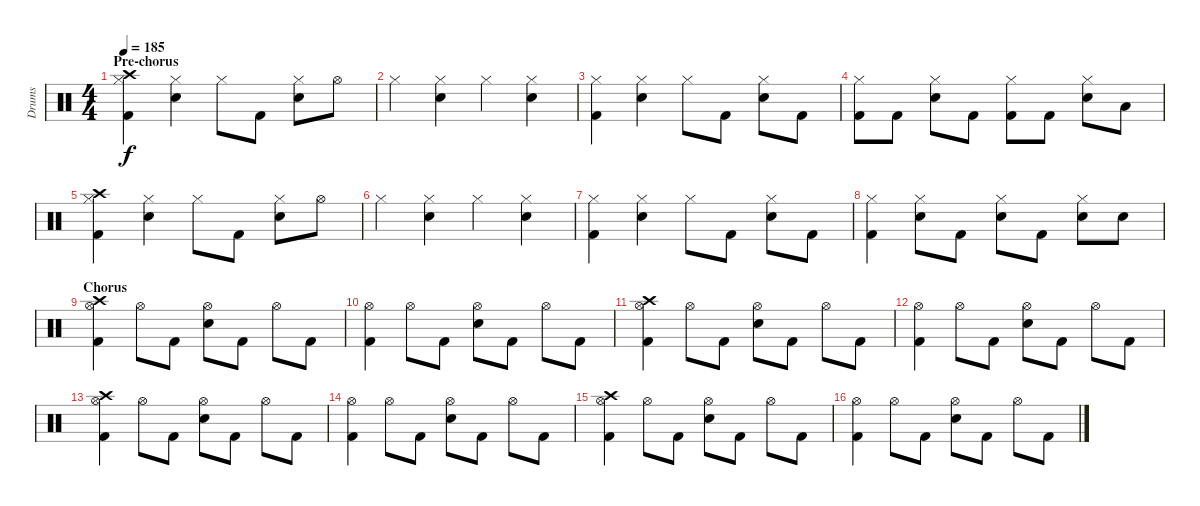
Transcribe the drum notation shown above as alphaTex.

\track ("Drums" "Drums") {instrument percussion}
\staff {score}
\articulation defaults
\ts (4 4)
\section ("" "Pre-chorus")
\tempo 185
\clef neutral
\ks c
("Hi-Hat (closed)" "Kick (hit) 2" "Crash high (hit)").4{dy f} ("Hi-Hat (closed)" "Electric Snare (hit)").4 "Hi-Hat (closed)".8 "Kick (hit) 2".8 ("Hi-Hat (closed)" "Electric Snare (hit)").8 "Hi-Hat (open)".8 |
"Hi-Hat (closed)".4 ("Hi-Hat (closed)" "Electric Snare (hit)").4 "Hi-Hat (closed)".4 ("Hi-Hat (closed)" "Electric Snare (hit)").4 |
("Hi-Hat (closed)" "Kick (hit) 2").4 ("Hi-Hat (closed)" "Electric Snare (hit)").4 "Hi-Hat (closed)".8 "Kick (hit) 2".8 ("Hi-Hat (closed)" "Electric Snare (hit)").8 "Kick (hit) 2".8 |
("Hi-Hat (closed)" "Kick (hit) 2").8 "Kick (hit) 2".8 ("Hi-Hat (closed)" "Electric Snare (hit)").8 "Kick (hit) 2".8 ("Hi-Hat (closed)" "Kick (hit) 2").8 "Kick (hit) 2".8 ("Hi-Hat (closed)" "Electric Snare (hit)").8 "Low Tom (hit)".8 |
("Hi-Hat (closed)" "Kick (hit) 2" "Crash high (hit)").4 ("Hi-Hat (closed)" "Electric Snare (hit)").4 "Hi-Hat (closed)".8 "Kick (hit) 2".8 ("Hi-Hat (closed)" "Electric Snare (hit)").8 "Hi-Hat (open)".8 |
"Hi-Hat (closed)".4 ("Hi-Hat (closed)" "Electric Snare (hit)").4 "Hi-Hat (closed)".4 ("Hi-Hat (closed)" "Electric Snare (hit)").4 |
("Hi-Hat (closed)" "Kick (hit) 2").4 ("Hi-Hat (closed)" "Electric Snare (hit)").4 "Hi-Hat (closed)".8 "Kick (hit) 2".8 ("Hi-Hat (closed)" "Electric Snare (hit)").8 "Kick (hit) 2".8 |
("Hi-Hat (closed)" "Kick (hit) 2").4 ("Hi-Hat (closed)" "Electric Snare (hit)").8 "Kick (hit) 2".8 ("Hi-Hat (closed)" "Electric Snare (hit)").8 "Kick (hit) 2".8 ("Hi-Hat (closed)" "Electric Snare (hit)").8 "Electric Snare (hit)".8 |
\section ("" "Chorus")
("Hi-Hat (open)" "Kick (hit) 2" "Crash high (hit)").4 "Hi-Hat (open)".8 "Kick (hit) 2".8 ("Hi-Hat (open)" "Electric Snare (hit)").8 "Kick (hit) 2".8 "Hi-Hat (open)".8 "Kick (hit) 2".8 |
("Hi-Hat (open)" "Kick (hit) 2").4 "Hi-Hat (open)".8 "Kick (hit) 2".8 ("Hi-Hat (open)" "Electric Snare (hit)").8 "Kick (hit) 2".8 "Hi-Hat (open)".8 "Kick (hit) 2".8 |
("Hi-Hat (open)" "Kick (hit) 2" "Crash high (hit)").4 "Hi-Hat (open)".8 "Kick (hit) 2".8 ("Hi-Hat (open)" "Electric Snare (hit)").8 "Kick (hit) 2".8 "Hi-Hat (open)".8 "Kick (hit) 2".8 |
("Hi-Hat (open)" "Kick (hit) 2").4 "Hi-Hat (open)".8 "Kick (hit) 2".8 ("Hi-Hat (open)" "Electric Snare (hit)").8 "Kick (hit) 2".8 "Hi-Hat (open)".8 "Kick (hit) 2".8 |
("Hi-Hat (open)" "Kick (hit) 2" "Crash high (hit)").4 "Hi-Hat (open)".8 "Kick (hit) 2".8 ("Hi-Hat (open)" "Electric Snare (hit)").8 "Kick (hit) 2".8 "Hi-Hat (open)".8 "Kick (hit) 2".8 |
("Hi-Hat (open)" "Kick (hit) 2").4 "Hi-Hat (open)".8 "Kick (hit) 2".8 ("Hi-Hat (open)" "Electric Snare (hit)").8 "Kick (hit) 2".8 "Hi-Hat (open)".8 "Kick (hit) 2".8 |
("Hi-Hat (open)" "Kick (hit) 2" "Crash high (hit)").4 "Hi-Hat (open)".8 "Kick (hit) 2".8 ("Hi-Hat (open)" "Electric Snare (hit)").8 "Kick (hit) 2".8 "Hi-Hat (open)".8 "Kick (hit) 2".8 |
("Hi-Hat (open)" "Kick (hit) 2").4 "Hi-Hat (open)".8 "Kick (hit) 2".8 ("Hi-Hat (open)" "Electric Snare (hit)").8 "Kick (hit) 2".8 "Hi-Hat (open)".8 "Kick (hit) 2".8
